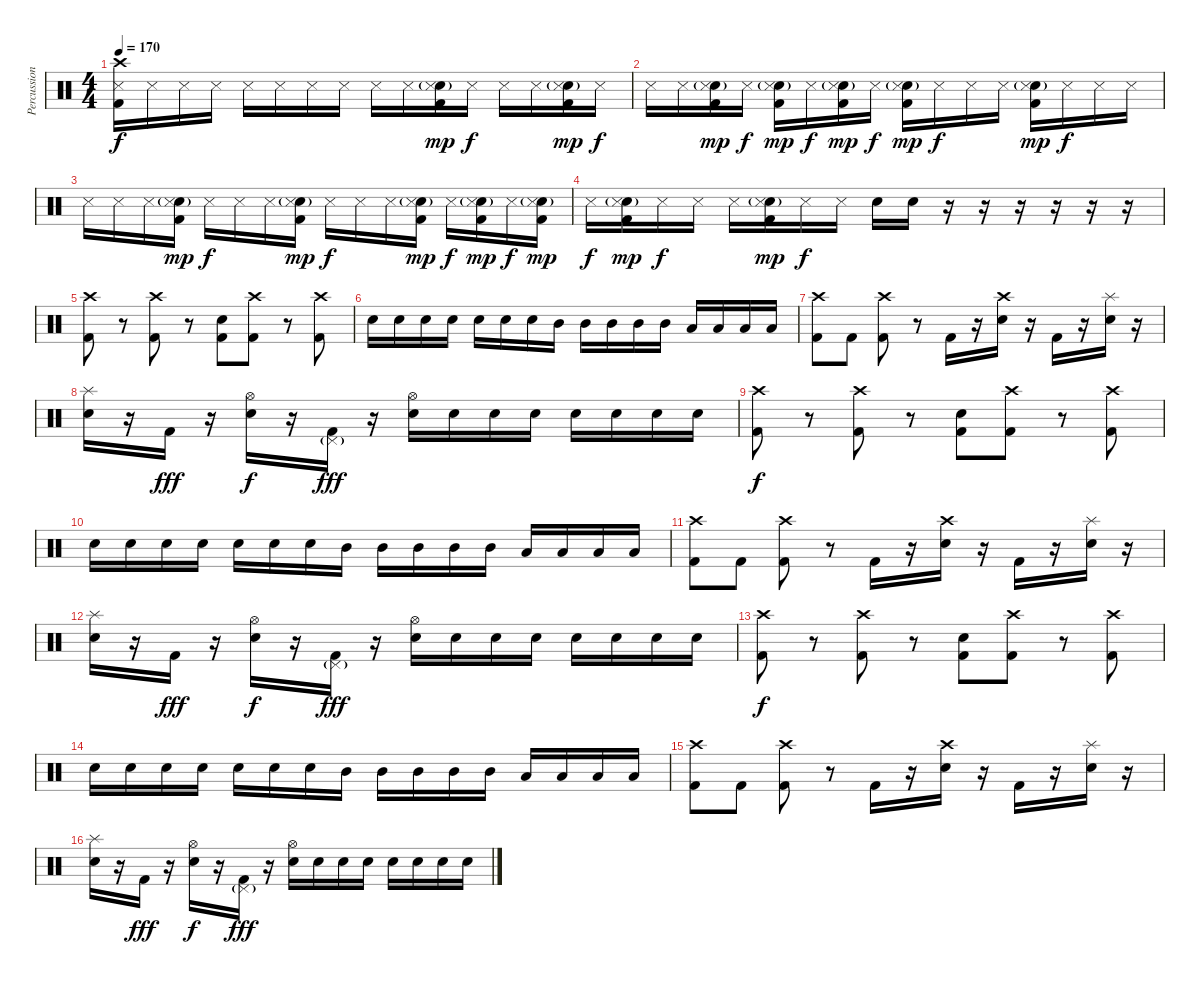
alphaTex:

\track ("Percussion" "Percussion") {instrument percussion}
\staff {score}
\articulation defaults
\ts (4 4)
\tempo 170
\clef neutral
\ks c
("Crash high (hit)" "Snare (side stick) 3" "Kick (hit) 2").16{dy f} "Snare (side stick) 3".16 "Snare (side stick) 3".16 "Snare (side stick) 3".16 "Snare (side stick) 3".16 "Snare (side stick) 3".16 "Snare (side stick) 3".16 "Snare (side stick) 3".16 "Snare (side stick) 3".16 "Snare (side stick) 3".16 ("Snare (hit) 2"{g} "Snare (side stick) 3" "Kick (hit) 2").16{dy mp} "Snare (side stick) 3".16{dy f} "Snare (side stick) 3".16 "Snare (side stick) 3".16 ("Snare (hit) 2"{g} "Snare (side stick) 3" "Kick (hit) 2").16{dy mp} "Snare (side stick) 3".16{dy f} |
"Snare (side stick) 3".16 "Snare (side stick) 3".16 ("Snare (hit) 2"{g} "Snare (side stick) 3" "Kick (hit) 2").16{dy mp} "Snare (side stick) 3".16{dy f} ("Snare (hit) 2"{g} "Snare (side stick) 3" "Kick (hit) 2").16{dy mp} "Snare (side stick) 3".16{dy f} ("Snare (hit) 2"{g} "Snare (side stick) 3" "Kick (hit) 2").16{dy mp} "Snare (side stick) 3".16{dy f} ("Snare (hit) 2"{g} "Snare (side stick) 3" "Kick (hit) 2").16{dy mp} "Snare (side stick) 3".16{dy f} "Snare (side stick) 3".16 "Snare (side stick) 3".16 ("Snare (hit) 2"{g} "Snare (side stick) 3" "Kick (hit) 2").16{dy mp} "Snare (side stick) 3".16{dy f} "Snare (side stick) 3".16 "Snare (side stick) 3".16 |
"Snare (side stick) 3".16 "Snare (side stick) 3".16 "Snare (side stick) 3".16 ("Snare (hit) 2"{g} "Snare (side stick) 3" "Kick (hit) 2").16{dy mp} "Snare (side stick) 3".16{dy f} "Snare (side stick) 3".16 "Snare (side stick) 3".16 ("Snare (hit) 2"{g} "Snare (side stick) 3" "Kick (hit) 2").16{dy mp} "Snare (side stick) 3".16{dy f} "Snare (side stick) 3".16 "Snare (side stick) 3".16 ("Snare (hit) 2"{g} "Snare (side stick) 3" "Kick (hit) 2").16{dy mp} "Snare (side stick) 3".16{dy f} ("Snare (hit) 2"{g} "Snare (side stick) 3" "Kick (hit) 2").16{dy mp} "Snare (side stick) 3".16{dy f} ("Snare (hit) 2"{g} "Snare (side stick) 3" "Kick (hit) 2").16{dy mp} |
"Snare (side stick) 3".16{dy f} ("Snare (hit) 2"{g} "Snare (side stick) 3" "Kick (hit) 2").16{dy mp} "Snare (side stick) 3".16{dy f} "Snare (side stick) 3".16 "Snare (side stick) 3".16 ("Snare (hit) 2"{g} "Snare (side stick) 3" "Kick (hit) 2").16{dy mp} "Snare (side stick) 3".16{dy f} "Snare (side stick) 3".16 "Electric Snare (hit)".16 "Electric Snare (hit)".16 r.16 r.16 r.16 r.16 r.16 r.16 |
("Crash high (hit)" "Kick (hit) 2").8 r.8 ("Crash high (hit)" "Kick (hit) 2").8 r.8 ("Electric Snare (hit)" "Kick (hit) 2").8 ("Crash high (hit)" "Kick (hit) 2").8 r.8 ("Crash high (hit)" "Kick (hit) 2").8 |
"Electric Snare (hit)".16 "Electric Snare (hit)".16 "Electric Snare (hit)".16 "Electric Snare (hit)".16 "Electric Snare (hit)".16 "Electric Snare (hit)".16 "Electric Snare (hit)".16 "Mid Tom (hit)".16 "Mid Tom (hit)".16 "Mid Tom (hit)".16 "Mid Tom (hit)".16 "Mid Tom (hit)".16 "Low Tom (hit)".16 "Low Tom (hit)".16 "Low Tom (hit)".16 "Low Tom (hit)".16 |
("Crash high (hit)" "Kick (hit) 2").8 "Kick (hit) 2".8 ("Crash high (hit)" "Kick (hit) 2").8 r.8 "Kick (hit) 2".16 r.16 ("Crash high (hit)" "Electric Snare (hit)").16 r.16 "Kick (hit) 2".16 r.16 ("Splash (hit)" "Electric Snare (hit)").16 r.16 |
("Splash (hit)" "Electric Snare (hit)").16 r.16 "Kick (hit) 2".16{dy fff} r.16 ("Hi-Hat (open)" "Electric Snare (hit)").16{dy f} r.16 ("Pedal Hi-Hat (hit)"{g} "Kick (hit) 2").16{dy fff} r.16 ("Hi-Hat (open)" "Electric Snare (hit)").16 "Electric Snare (hit)".16 "Electric Snare (hit)".16 "Electric Snare (hit)".16 "Electric Snare (hit)".16 "Electric Snare (hit)".16 "Electric Snare (hit)".16 "Electric Snare (hit)".16 |
("Crash high (hit)" "Kick (hit) 2").8{dy f} r.8 ("Crash high (hit)" "Kick (hit) 2").8 r.8 ("Electric Snare (hit)" "Kick (hit) 2").8 ("Crash high (hit)" "Kick (hit) 2").8 r.8 ("Crash high (hit)" "Kick (hit) 2").8 |
"Electric Snare (hit)".16 "Electric Snare (hit)".16 "Electric Snare (hit)".16 "Electric Snare (hit)".16 "Electric Snare (hit)".16 "Electric Snare (hit)".16 "Electric Snare (hit)".16 "Mid Tom (hit)".16 "Mid Tom (hit)".16 "Mid Tom (hit)".16 "Mid Tom (hit)".16 "Mid Tom (hit)".16 "Low Tom (hit)".16 "Low Tom (hit)".16 "Low Tom (hit)".16 "Low Tom (hit)".16 |
("Crash high (hit)" "Kick (hit) 2").8 "Kick (hit) 2".8 ("Crash high (hit)" "Kick (hit) 2").8 r.8 "Kick (hit) 2".16 r.16 ("Crash high (hit)" "Electric Snare (hit)").16 r.16 "Kick (hit) 2".16 r.16 ("Splash (hit)" "Electric Snare (hit)").16 r.16 |
("Splash (hit)" "Electric Snare (hit)").16 r.16 "Kick (hit) 2".16{dy fff} r.16 ("Hi-Hat (open)" "Electric Snare (hit)").16{dy f} r.16 ("Pedal Hi-Hat (hit)"{g} "Kick (hit) 2").16{dy fff} r.16 ("Hi-Hat (open)" "Electric Snare (hit)").16 "Electric Snare (hit)".16 "Electric Snare (hit)".16 "Electric Snare (hit)".16 "Electric Snare (hit)".16 "Electric Snare (hit)".16 "Electric Snare (hit)".16 "Electric Snare (hit)".16 |
("Crash high (hit)" "Kick (hit) 2").8{dy f} r.8 ("Crash high (hit)" "Kick (hit) 2").8 r.8 ("Electric Snare (hit)" "Kick (hit) 2").8 ("Crash high (hit)" "Kick (hit) 2").8 r.8 ("Crash high (hit)" "Kick (hit) 2").8 |
"Electric Snare (hit)".16 "Electric Snare (hit)".16 "Electric Snare (hit)".16 "Electric Snare (hit)".16 "Electric Snare (hit)".16 "Electric Snare (hit)".16 "Electric Snare (hit)".16 "Mid Tom (hit)".16 "Mid Tom (hit)".16 "Mid Tom (hit)".16 "Mid Tom (hit)".16 "Mid Tom (hit)".16 "Low Tom (hit)".16 "Low Tom (hit)".16 "Low Tom (hit)".16 "Low Tom (hit)".16 |
("Crash high (hit)" "Kick (hit) 2").8 "Kick (hit) 2".8 ("Crash high (hit)" "Kick (hit) 2").8 r.8 "Kick (hit) 2".16 r.16 ("Crash high (hit)" "Electric Snare (hit)").16 r.16 "Kick (hit) 2".16 r.16 ("Splash (hit)" "Electric Snare (hit)").16 r.16 |
("Splash (hit)" "Electric Snare (hit)").16 r.16 "Kick (hit) 2".16{dy fff} r.16 ("Hi-Hat (open)" "Electric Snare (hit)").16{dy f} r.16 ("Pedal Hi-Hat (hit)"{g} "Kick (hit) 2").16{dy fff} r.16 ("Hi-Hat (open)" "Electric Snare (hit)").16 "Electric Snare (hit)".16 "Electric Snare (hit)".16 "Electric Snare (hit)".16 "Electric Snare (hit)".16 "Electric Snare (hit)".16 "Electric Snare (hit)".16 "Electric Snare (hit)".16
